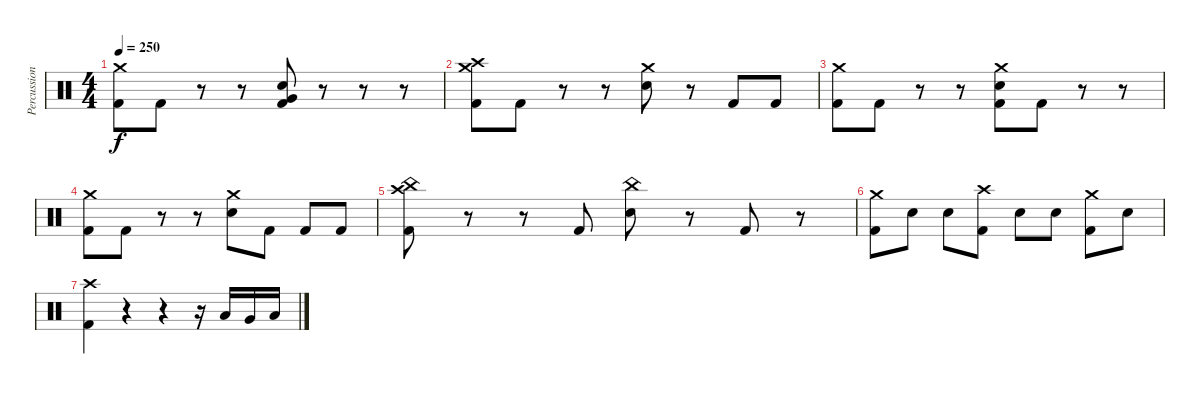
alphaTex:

\track ("Percussion" "Percussion") {instrument percussion}
\staff {score}
\articulation defaults
\ts (4 4)
\tempo 250
\clef neutral
\ks c
("Crash medium (hit)" "Kick (hit) 2").8{dy f} "Kick (hit) 2".8 r.8 r.8 ("Electric Snare (hit)" "Very Low Tom (hit)" "Kick (hit) 2").8 r.8 r.8 r.8 |
("Crash high (hit)" "Crash medium (hit)" "Kick (hit) 2").8 "Kick (hit) 2".8 r.8 r.8 ("Crash medium (hit)" "Electric Snare (hit)").8 r.8 "Kick (hit) 2".8 "Kick (hit) 2".8 |
("Crash medium (hit)" "Kick (hit) 2").8 "Kick (hit) 2".8 r.8 r.8 ("Crash medium (hit)" "Electric Snare (hit)" "Kick (hit) 2").8 "Kick (hit) 2".8 r.8 r.8 |
("Crash medium (hit)" "Kick (hit) 2").8 "Kick (hit) 2".8 r.8 r.8 ("Crash medium (hit)" "Electric Snare (hit)").8 "Kick (hit) 2".8 "Kick (hit) 2".8 "Kick (hit) 2".8 |
("Crash high (hit)" "China (hit)" "Kick (hit) 2").8 r.8 r.8 "Kick (hit) 2".8 ("China (hit)" "Electric Snare (hit)").8 r.8 "Kick (hit) 2".8 r.8 |
("Crash medium (hit)" "Kick (hit) 2").8 "Electric Snare (hit)".8 "Electric Snare (hit)".8 ("Crash high (hit)" "Kick (hit) 2").8 "Electric Snare (hit)".8 "Electric Snare (hit)".8 ("Crash medium (hit)" "Kick (hit) 2").8 "Electric Snare (hit)".8 |
("Crash high (hit)" "Kick (hit) 2").4 r.4 r.4 r.16 "Low Tom (hit)".16 "Very Low Tom (hit)".16 "Low Floor Tom (hit)".16
